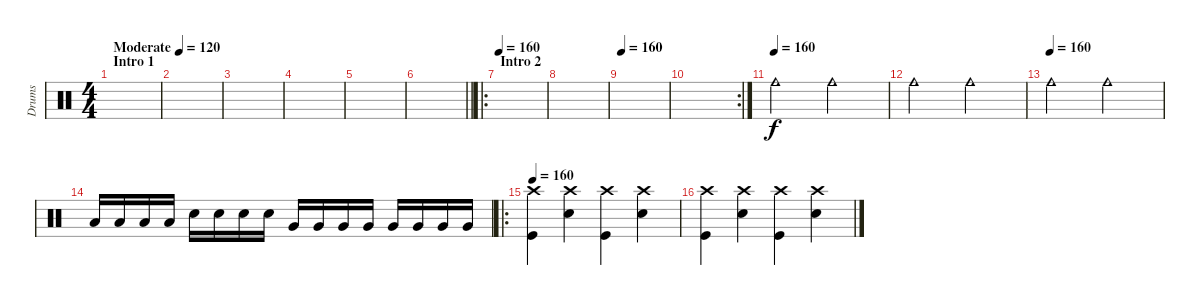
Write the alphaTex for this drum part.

\track ("Drums" "Drums") {instrument percussion}
\staff {score}
\articulation defaults
\ts (4 4)
\section ("" "Intro 1")
\tempo (120 "Moderate")
\clef neutral
\ks c
|
|
|
|
|
\barLineRight lightlight
|
\ro
\section ("" "Intro 2 ")
\tempo 160
|
|
\tempo 160
|
\rc 2
|
\tempo (160)
"Cowbell medium (hit)".2 "Cowbell medium (hit)".2 |
"Cowbell medium (hit)".2 "Cowbell medium (hit)".2 |
\tempo (160)
"Cowbell medium (hit)".2 "Cowbell medium (hit)".2 |
"Low Floor Tom (hit)".16 "Low Floor Tom (hit)".16 "Low Floor Tom (hit)".16 "Low Floor Tom (hit)".16 "Snare (hit) 2".16 "Snare (hit) 2".16 "Snare (hit) 2".16 "Snare (hit) 2".16 "Very Low Tom (hit)".16 "Very Low Tom (hit)".16 "Very Low Tom (hit)".16 "Very Low Tom (hit)".16 "Very Low Tom (hit)".16 "Very Low Tom (hit)".16 "Very Low Tom (hit)".16 "Very Low Tom (hit)".16 |
\ro
\tempo 160
("Crash high (hit)" "Kick (hit)").4 ("Crash high (hit)" "Snare (hit) 2").4 ("Crash high (hit)" "Kick (hit)").4 ("Crash high (hit)" "Snare (hit) 2").4 |
("Crash high (hit)" "Kick (hit)").4 ("Crash high (hit)" "Snare (hit) 2").4 ("Crash high (hit)" "Kick (hit)").4 ("Crash high (hit)" "Snare (hit) 2").4
